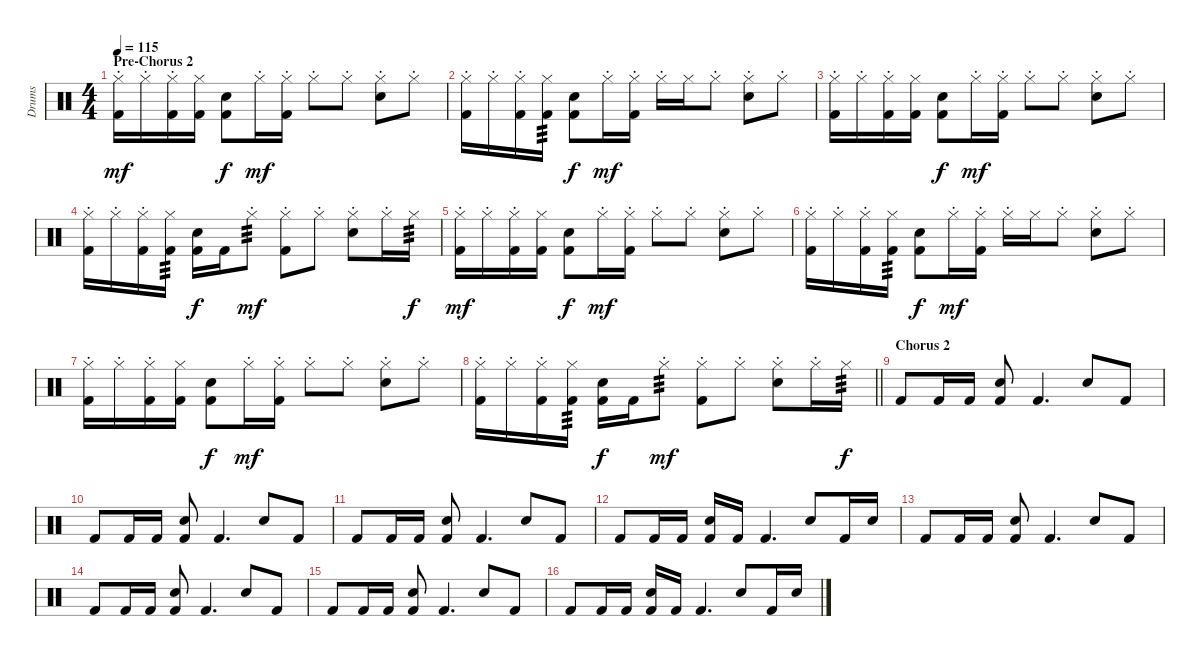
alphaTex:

\track ("Drums" "Drums") {instrument percussion}
\staff {score}
\articulation defaults
\ts (4 4)
\section ("" "Pre-Chorus 2")
\tempo 115
\clef neutral
\ks c
("Hi-Hat (closed)"{st} "Kick (hit) 2").16{dy mf} "Hi-Hat (closed)"{st}.16 ("Hi-Hat (closed)"{st} "Kick (hit) 2").16 ("Hi-Hat (closed)" "Kick (hit) 2").16 ("Snare (hit) 2" "Kick (hit) 2").8{dy f} "Hi-Hat (closed)"{st}.16{dy mf} ("Hi-Hat (closed)"{st} "Kick (hit) 2").16 "Hi-Hat (closed)"{st}.8 "Hi-Hat (closed)"{st}.8 ("Hi-Hat (closed)"{st} "Snare (hit) 2").8 "Hi-Hat (closed)"{st}.8 |
("Hi-Hat (closed)"{st} "Kick (hit) 2").16 "Hi-Hat (closed)"{st}.16 ("Hi-Hat (closed)"{st} "Kick (hit) 2").16 ("Hi-Hat (closed)" "Kick (hit) 2").16{tp 3} ("Snare (hit) 2" "Kick (hit) 2").8{dy f} "Hi-Hat (closed)"{st}.16{dy mf} ("Hi-Hat (closed)"{st} "Kick (hit) 2").16 "Hi-Hat (closed)"{st}.16 "Hi-Hat (closed)".16 "Hi-Hat (closed)"{st}.8 ("Hi-Hat (closed)"{st} "Snare (hit) 2").8 "Hi-Hat (closed)"{st}.8 |
("Hi-Hat (closed)"{st} "Kick (hit) 2").16 "Hi-Hat (closed)"{st}.16 ("Hi-Hat (closed)"{st} "Kick (hit) 2").16 ("Hi-Hat (closed)" "Kick (hit) 2").16 ("Snare (hit) 2" "Kick (hit) 2").8{dy f} "Hi-Hat (closed)"{st}.16{dy mf} ("Hi-Hat (closed)"{st} "Kick (hit) 2").16 "Hi-Hat (closed)"{st}.8 "Hi-Hat (closed)"{st}.8 ("Hi-Hat (closed)"{st} "Snare (hit) 2").8 "Hi-Hat (closed)"{st}.8 |
("Hi-Hat (closed)"{st} "Kick (hit) 2").16 "Hi-Hat (closed)"{st}.16 ("Hi-Hat (closed)"{st} "Kick (hit) 2").16 ("Hi-Hat (closed)" "Kick (hit) 2").16{tp 3} ("Snare (hit) 2" "Kick (hit) 2").16{dy f} "Kick (hit) 2".16 "Hi-Hat (closed)"{st}.8{tp 3 dy mf} ("Hi-Hat (closed)"{st} "Kick (hit) 2").8 "Hi-Hat (closed)"{st}.8 ("Hi-Hat (closed)"{st} "Snare (hit) 2").8 "Hi-Hat (closed)"{st}.16 "Hi-Hat (closed)".16{tp 3 dy f} |
("Hi-Hat (closed)"{st} "Kick (hit) 2").16{dy mf} "Hi-Hat (closed)"{st}.16 ("Hi-Hat (closed)"{st} "Kick (hit) 2").16 ("Hi-Hat (closed)" "Kick (hit) 2").16 ("Snare (hit) 2" "Kick (hit) 2").8{dy f} "Hi-Hat (closed)"{st}.16{dy mf} ("Hi-Hat (closed)"{st} "Kick (hit) 2").16 "Hi-Hat (closed)"{st}.8 "Hi-Hat (closed)"{st}.8 ("Hi-Hat (closed)"{st} "Snare (hit) 2").8 "Hi-Hat (closed)"{st}.8 |
("Hi-Hat (closed)"{st} "Kick (hit) 2").16 "Hi-Hat (closed)"{st}.16 ("Hi-Hat (closed)"{st} "Kick (hit) 2").16 ("Hi-Hat (closed)" "Kick (hit) 2").16{tp 3} ("Snare (hit) 2" "Kick (hit) 2").8{dy f} "Hi-Hat (closed)"{st}.16{dy mf} ("Hi-Hat (closed)"{st} "Kick (hit) 2").16 "Hi-Hat (closed)"{st}.16 "Hi-Hat (closed)".16 "Hi-Hat (closed)"{st}.8 ("Hi-Hat (closed)"{st} "Snare (hit) 2").8 "Hi-Hat (closed)"{st}.8 |
("Hi-Hat (closed)"{st} "Kick (hit) 2").16 "Hi-Hat (closed)"{st}.16 ("Hi-Hat (closed)"{st} "Kick (hit) 2").16 ("Hi-Hat (closed)" "Kick (hit) 2").16 ("Snare (hit) 2" "Kick (hit) 2").8{dy f} "Hi-Hat (closed)"{st}.16{dy mf} ("Hi-Hat (closed)"{st} "Kick (hit) 2").16 "Hi-Hat (closed)"{st}.8 "Hi-Hat (closed)"{st}.8 ("Hi-Hat (closed)"{st} "Snare (hit) 2").8 "Hi-Hat (closed)"{st}.8 |
\barLineRight lightlight
("Hi-Hat (closed)"{st} "Kick (hit) 2").16 "Hi-Hat (closed)"{st}.16 ("Hi-Hat (closed)"{st} "Kick (hit) 2").16 ("Hi-Hat (closed)" "Kick (hit) 2").16{tp 3} ("Snare (hit) 2" "Kick (hit) 2").16{dy f} "Kick (hit) 2".16 "Hi-Hat (closed)"{st}.8{tp 3 dy mf} ("Hi-Hat (closed)"{st} "Kick (hit) 2").8 "Hi-Hat (closed)"{st}.8 ("Hi-Hat (closed)"{st} "Snare (hit) 2").8 "Hi-Hat (closed)"{st}.16 "Hi-Hat (closed)".16{tp 3 dy f} |
\section ("" "Chorus 2")
"Kick (hit) 2".8 "Kick (hit) 2".16 "Kick (hit) 2".16 ("Electric Snare (hit)" "Kick (hit) 2").8 "Kick (hit) 2".4{d} "Electric Snare (hit)".8 "Kick (hit) 2".8 |
"Kick (hit) 2".8 "Kick (hit) 2".16 "Kick (hit) 2".16 ("Electric Snare (hit)" "Kick (hit) 2").8 "Kick (hit) 2".4{d} "Electric Snare (hit)".8 "Kick (hit) 2".8 |
"Kick (hit) 2".8 "Kick (hit) 2".16 "Kick (hit) 2".16 ("Electric Snare (hit)" "Kick (hit) 2").8 "Kick (hit) 2".4{d} "Electric Snare (hit)".8 "Kick (hit) 2".8 |
"Kick (hit) 2".8 "Kick (hit) 2".16 "Kick (hit) 2".16 ("Electric Snare (hit)" "Kick (hit) 2").16 "Kick (hit) 2".16 "Kick (hit) 2".4{d} "Electric Snare (hit)".8 "Kick (hit) 2".16 "Electric Snare (hit)".16 |
"Kick (hit) 2".8 "Kick (hit) 2".16 "Kick (hit) 2".16 ("Electric Snare (hit)" "Kick (hit) 2").8 "Kick (hit) 2".4{d} "Electric Snare (hit)".8 "Kick (hit) 2".8 |
"Kick (hit) 2".8 "Kick (hit) 2".16 "Kick (hit) 2".16 ("Electric Snare (hit)" "Kick (hit) 2").8 "Kick (hit) 2".4{d} "Electric Snare (hit)".8 "Kick (hit) 2".8 |
"Kick (hit) 2".8 "Kick (hit) 2".16 "Kick (hit) 2".16 ("Electric Snare (hit)" "Kick (hit) 2").8 "Kick (hit) 2".4{d} "Electric Snare (hit)".8 "Kick (hit) 2".8 |
"Kick (hit) 2".8 "Kick (hit) 2".16 "Kick (hit) 2".16 ("Electric Snare (hit)" "Kick (hit) 2").16 "Kick (hit) 2".16 "Kick (hit) 2".4{d} "Electric Snare (hit)".8 "Kick (hit) 2".16 "Electric Snare (hit)".16
